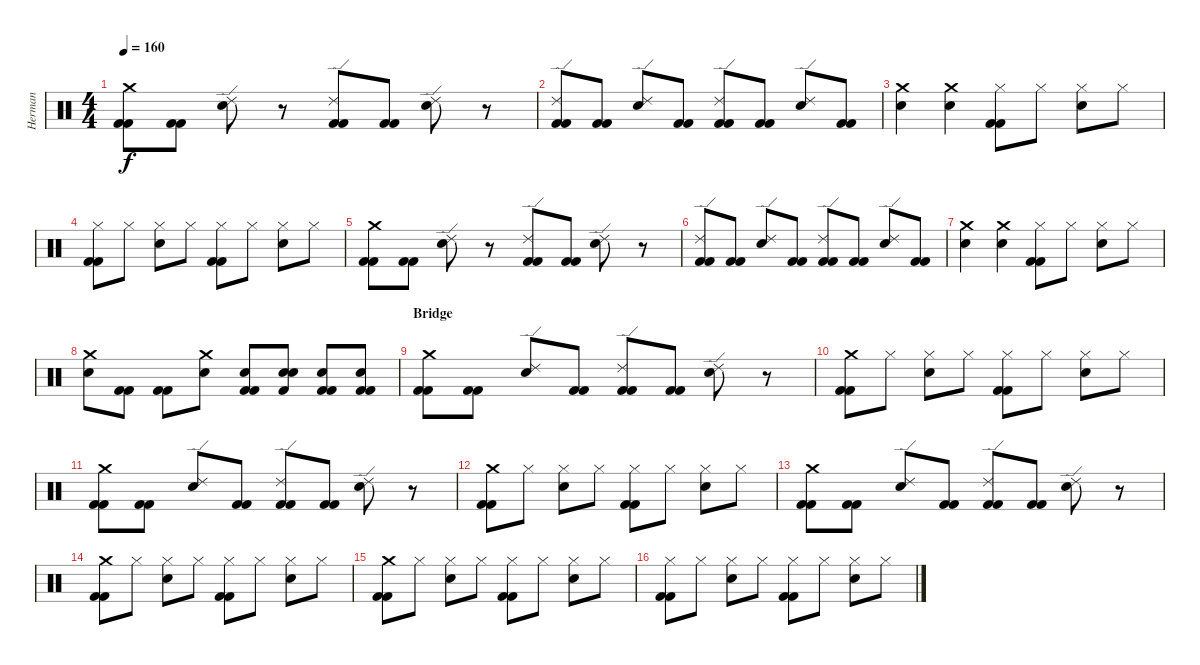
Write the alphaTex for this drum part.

\track ("Herman" "Herman") {instrument percussion}
\staff {score}
\articulation defaults
\ts (4 4)
\tempo 160
\clef neutral
\ks c
("Crash medium (hit)" "Kick (hit) 2" "Kick (hit) 2").8{dy f} ("Kick (hit) 2" "Kick (hit) 2").8 ("Electric Snare (hit)" "Ride (edge) 2").8 r.8 ("Ride (edge) 2" "Kick (hit) 2" "Kick (hit) 2").8 ("Kick (hit) 2" "Kick (hit) 2").8 ("Electric Snare (hit)" "Ride (edge) 2").8 r.8 |
("Kick (hit) 2" "Kick (hit) 2" "Ride (edge) 2").8 ("Kick (hit) 2" "Kick (hit) 2").8 ("Electric Snare (hit)" "Ride (edge) 2").8 ("Kick (hit) 2" "Kick (hit) 2").8 ("Kick (hit) 2" "Kick (hit) 2" "Ride (edge) 2").8 ("Kick (hit) 2" "Kick (hit) 2").8 ("Electric Snare (hit)" "Ride (edge) 2").8 ("Kick (hit) 2" "Kick (hit) 2").8 |
("Crash medium (hit)" "Electric Snare (hit)").4 ("Crash medium (hit)" "Electric Snare (hit)").4 ("Hi-Hat (closed)" "Kick (hit) 2" "Kick (hit) 2").8 "Hi-Hat (closed)".8 ("Electric Snare (hit)" "Hi-Hat (closed)").8 "Hi-Hat (closed)".8 |
("Kick (hit) 2" "Kick (hit) 2" "Hi-Hat (closed)").8 "Hi-Hat (closed)".8 ("Hi-Hat (closed)" "Electric Snare (hit)").8 "Hi-Hat (closed)".8 ("Hi-Hat (closed)" "Kick (hit) 2" "Kick (hit) 2").8 "Hi-Hat (closed)".8 ("Electric Snare (hit)" "Hi-Hat (closed)").8 "Hi-Hat (closed)".8 |
("Crash medium (hit)" "Kick (hit) 2" "Kick (hit) 2").8 ("Kick (hit) 2" "Kick (hit) 2").8 ("Electric Snare (hit)" "Ride (edge) 2").8 r.8 ("Ride (edge) 2" "Kick (hit) 2" "Kick (hit) 2").8 ("Kick (hit) 2" "Kick (hit) 2").8 ("Electric Snare (hit)" "Ride (edge) 2").8 r.8 |
("Kick (hit) 2" "Kick (hit) 2" "Ride (edge) 2").8 ("Kick (hit) 2" "Kick (hit) 2").8 ("Electric Snare (hit)" "Ride (edge) 2").8 ("Kick (hit) 2" "Kick (hit) 2").8 ("Kick (hit) 2" "Kick (hit) 2" "Ride (edge) 2").8 ("Kick (hit) 2" "Kick (hit) 2").8 ("Electric Snare (hit)" "Ride (edge) 2").8 ("Kick (hit) 2" "Kick (hit) 2").8 |
("Crash medium (hit)" "Electric Snare (hit)").4 ("Crash medium (hit)" "Electric Snare (hit)").4 ("Hi-Hat (closed)" "Kick (hit) 2" "Kick (hit) 2").8 "Hi-Hat (closed)".8 ("Electric Snare (hit)" "Hi-Hat (closed)").8 "Hi-Hat (closed)".8 |
("Crash medium (hit)" "Electric Snare (hit)").8 ("Kick (hit) 2" "Kick (hit) 2").8 ("Kick (hit) 2" "Kick (hit) 2").8 ("Crash medium (hit)" "Electric Snare (hit)").8 ("Kick (hit) 2" "Electric Snare (hit)" "Kick (hit) 2").8 ("Electric Snare (hit)" "Electric Snare (hit)" "Kick (hit) 2").8 ("Kick (hit) 2" "Kick (hit) 2" "Electric Snare (hit)").8 ("Electric Snare (hit)" "Kick (hit) 2" "Kick (hit) 2").8 |
\section ("" "Bridge")
("Crash medium (hit)" "Kick (hit) 2" "Kick (hit) 2").8 ("Kick (hit) 2" "Kick (hit) 2").8 ("Ride (edge) 2" "Electric Snare (hit)").8 ("Kick (hit) 2" "Kick (hit) 2").8 ("Ride (edge) 2" "Kick (hit) 2" "Kick (hit) 2").8 ("Kick (hit) 2" "Kick (hit) 2").8 ("Ride (edge) 2" "Electric Snare (hit)").8 r.8 |
("Kick (hit) 2" "Kick (hit) 2" "Crash medium (hit)").8 "Hi-Hat (closed)".8 ("Hi-Hat (closed)" "Electric Snare (hit)").8 "Hi-Hat (closed)".8 ("Kick (hit) 2" "Kick (hit) 2" "Hi-Hat (closed)").8 "Hi-Hat (closed)".8 ("Hi-Hat (closed)" "Electric Snare (hit)").8 "Hi-Hat (closed)".8 |
("Crash medium (hit)" "Kick (hit) 2" "Kick (hit) 2").8 ("Kick (hit) 2" "Kick (hit) 2").8 ("Ride (edge) 2" "Electric Snare (hit)").8 ("Kick (hit) 2" "Kick (hit) 2").8 ("Ride (edge) 2" "Kick (hit) 2" "Kick (hit) 2").8 ("Kick (hit) 2" "Kick (hit) 2").8 ("Ride (edge) 2" "Electric Snare (hit)").8 r.8 |
("Kick (hit) 2" "Kick (hit) 2" "Crash medium (hit)").8 "Hi-Hat (closed)".8 ("Hi-Hat (closed)" "Electric Snare (hit)").8 "Hi-Hat (closed)".8 ("Kick (hit) 2" "Kick (hit) 2" "Hi-Hat (closed)").8 "Hi-Hat (closed)".8 ("Hi-Hat (closed)" "Electric Snare (hit)").8 "Hi-Hat (closed)".8 |
("Crash medium (hit)" "Kick (hit) 2" "Kick (hit) 2").8 ("Kick (hit) 2" "Kick (hit) 2").8 ("Ride (edge) 2" "Electric Snare (hit)").8 ("Kick (hit) 2" "Kick (hit) 2").8 ("Ride (edge) 2" "Kick (hit) 2" "Kick (hit) 2").8 ("Kick (hit) 2" "Kick (hit) 2").8 ("Ride (edge) 2" "Electric Snare (hit)").8 r.8 |
("Kick (hit) 2" "Kick (hit) 2" "Crash medium (hit)").8 "Hi-Hat (closed)".8 ("Hi-Hat (closed)" "Electric Snare (hit)").8 "Hi-Hat (closed)".8 ("Kick (hit) 2" "Kick (hit) 2" "Hi-Hat (closed)").8 "Hi-Hat (closed)".8 ("Hi-Hat (closed)" "Electric Snare (hit)").8 "Hi-Hat (closed)".8 |
("Crash medium (hit)" "Kick (hit) 2" "Kick (hit) 2").8 "Hi-Hat (closed)".8 ("Electric Snare (hit)" "Hi-Hat (closed)").8 "Hi-Hat (closed)".8 ("Hi-Hat (closed)" "Kick (hit) 2" "Kick (hit) 2").8 "Hi-Hat (closed)".8 ("Electric Snare (hit)" "Hi-Hat (closed)").8 "Hi-Hat (closed)".8 |
("Hi-Hat (closed)" "Kick (hit) 2" "Kick (hit) 2").8 "Hi-Hat (closed)".8 ("Electric Snare (hit)" "Hi-Hat (closed)").8 "Hi-Hat (closed)".8 ("Hi-Hat (closed)" "Kick (hit) 2" "Kick (hit) 2").8 "Hi-Hat (closed)".8 ("Electric Snare (hit)" "Hi-Hat (closed)").8 "Hi-Hat (closed)".8
